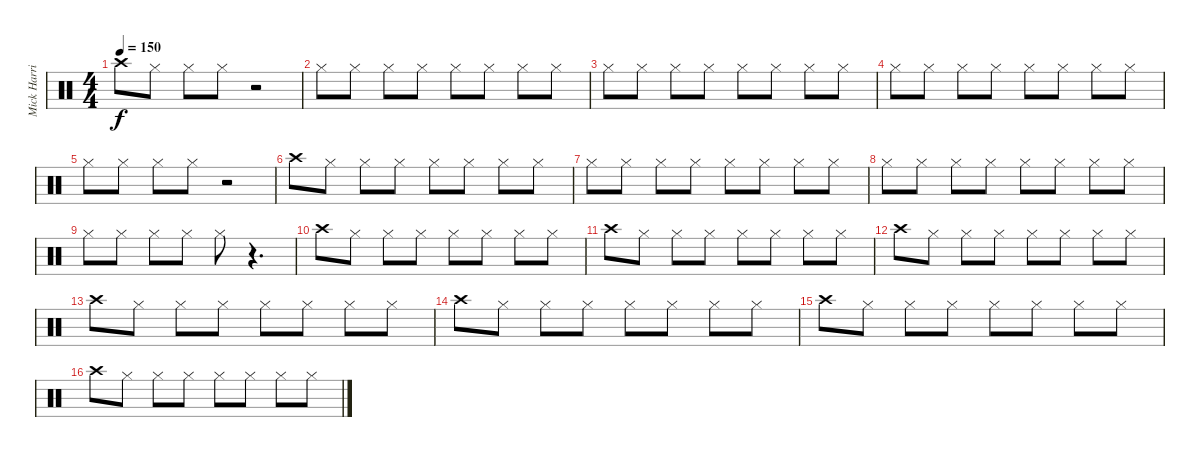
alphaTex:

\track ("Mick Harris" "Mick Harri") {instrument percussion}
\staff {score}
\articulation defaults
\ts (4 4)
\tempo 150
\clef neutral
\ks c "Crash high (hit)".8{dy f beam Down} "Hi-Hat (closed)".8{beam Down} "Hi-Hat (closed)".8{beam Down} "Hi-Hat (closed)".8{beam Down}
r.2{beam Up} |
"Hi-Hat (closed)".8 "Hi-Hat (closed)".8 "Hi-Hat (closed)".8 "Hi-Hat (closed)".8 "Hi-Hat (closed)".8 "Hi-Hat (closed)".8 "Hi-Hat (closed)".8 "Hi-Hat (closed)".8 |
"Hi-Hat (closed)".8 "Hi-Hat (closed)".8 "Hi-Hat (closed)".8 "Hi-Hat (closed)".8 "Hi-Hat (closed)".8 "Hi-Hat (closed)".8 "Hi-Hat (closed)".8 "Hi-Hat (closed)".8 |
"Hi-Hat (closed)".8 "Hi-Hat (closed)".8 "Hi-Hat (closed)".8 "Hi-Hat (closed)".8 "Hi-Hat (closed)".8 "Hi-Hat (closed)".8 "Hi-Hat (closed)".8 "Hi-Hat (closed)".8 |
"Hi-Hat (closed)".8 "Hi-Hat (closed)".8 "Hi-Hat (closed)".8 "Hi-Hat (closed)".8 r.2 |
"Crash high (hit)".8 "Hi-Hat (closed)".8 "Hi-Hat (closed)".8 "Hi-Hat (closed)".8 "Hi-Hat (closed)".8 "Hi-Hat (closed)".8 "Hi-Hat (closed)".8 "Hi-Hat (closed)".8 |
"Hi-Hat (closed)".8 "Hi-Hat (closed)".8 "Hi-Hat (closed)".8 "Hi-Hat (closed)".8 "Hi-Hat (closed)".8 "Hi-Hat (closed)".8 "Hi-Hat (closed)".8 "Hi-Hat (closed)".8 |
"Hi-Hat (closed)".8 "Hi-Hat (closed)".8 "Hi-Hat (closed)".8 "Hi-Hat (closed)".8 "Hi-Hat (closed)".8 "Hi-Hat (closed)".8 "Hi-Hat (closed)".8 "Hi-Hat (closed)".8 |
"Hi-Hat (closed)".8 "Hi-Hat (closed)".8 "Hi-Hat (closed)".8 "Hi-Hat (closed)".8 "Hi-Hat (closed)".8 r.4{d} |
"Crash high (hit)".8{beam Down} "Hi-Hat (closed)".8{beam Down} "Hi-Hat (closed)".8{beam Down} "Hi-Hat (closed)".8{beam Down} "Hi-Hat (closed)".8{beam Down} "Hi-Hat (closed)".8{beam Down} "Hi-Hat (closed)".8{beam Down} "Hi-Hat (closed)".8{beam Down} |
"Crash high (hit)".8{beam Down} "Hi-Hat (closed)".8{beam Down} "Hi-Hat (closed)".8{beam Down} "Hi-Hat (closed)".8{beam Down} "Hi-Hat (closed)".8{beam Down} "Hi-Hat (closed)".8{beam Down} "Hi-Hat (closed)".8{beam Down} "Hi-Hat (closed)".8{beam Down} |
"Crash high (hit)".8{beam Down} "Hi-Hat (closed)".8{beam Down} "Hi-Hat (closed)".8{beam Down} "Hi-Hat (closed)".8{beam Down} "Hi-Hat (closed)".8{beam Down} "Hi-Hat (closed)".8{beam Down} "Hi-Hat (closed)".8{beam Down} "Hi-Hat (closed)".8{beam Down} |
"Crash high (hit)".8{beam Down} "Hi-Hat (closed)".8{beam Down} "Hi-Hat (closed)".8{beam Down} "Hi-Hat (closed)".8{beam Down} "Hi-Hat (closed)".8{beam Down} "Hi-Hat (closed)".8{beam Down} "Hi-Hat (closed)".8{beam Down} "Hi-Hat (closed)".8{beam Down} |
"Crash high (hit)".8{beam Down} "Hi-Hat (closed)".8{beam Down} "Hi-Hat (closed)".8{beam Down} "Hi-Hat (closed)".8{beam Down} "Hi-Hat (closed)".8{beam Down} "Hi-Hat (closed)".8{beam Down} "Hi-Hat (closed)".8{beam Down} "Hi-Hat (closed)".8{beam Down} |
"Crash high (hit)".8{beam Down} "Hi-Hat (closed)".8{beam Down} "Hi-Hat (closed)".8{beam Down} "Hi-Hat (closed)".8{beam Down} "Hi-Hat (closed)".8{beam Down} "Hi-Hat (closed)".8{beam Down} "Hi-Hat (closed)".8{beam Down} "Hi-Hat (closed)".8{beam Down} |
"Crash high (hit)".8{beam Down} "Hi-Hat (closed)".8{beam Down} "Hi-Hat (closed)".8{beam Down} "Hi-Hat (closed)".8{beam Down} "Hi-Hat (closed)".8{beam Down} "Hi-Hat (closed)".8{beam Down} "Hi-Hat (closed)".8{beam Down} "Hi-Hat (closed)".8{beam Down}
